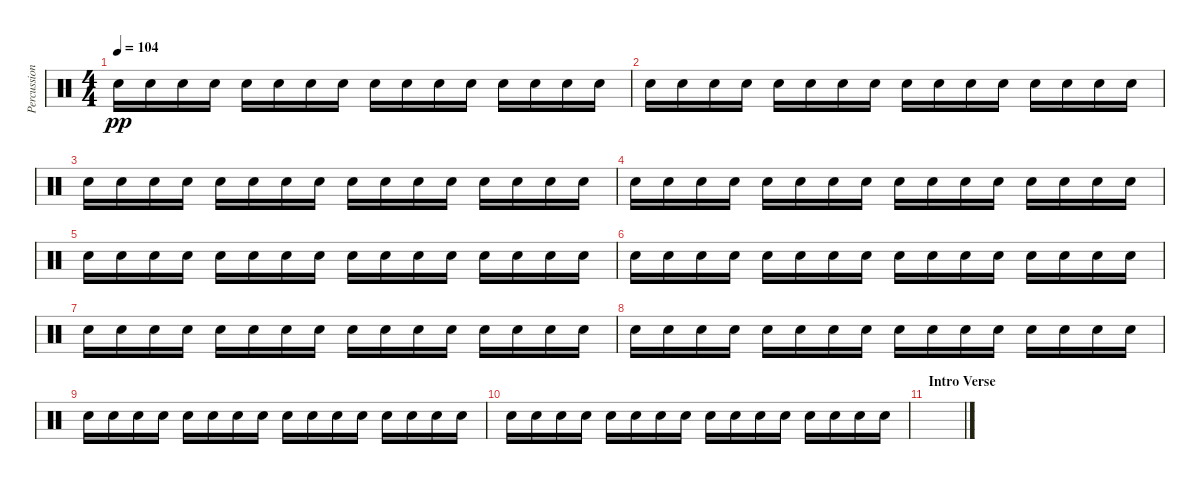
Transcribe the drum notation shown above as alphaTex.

\track ("Percussion" "Percussion") {instrument percussion}
\staff {score}
\articulation defaults
\ts (4 4)
\tempo 104
\clef neutral
\ks c "Snare (hit) 2".16{dy pp} "Snare (hit) 2".16 "Snare (hit) 2".16 "Snare (hit) 2".16 "Snare (hit) 2".16 "Snare (hit) 2".16 "Snare (hit) 2".16 "Snare (hit) 2".16 "Snare (hit) 2".16 "Snare (hit) 2".16 "Snare (hit) 2".16 "Snare (hit) 2".16 "Snare (hit) 2".16 "Snare (hit) 2".16 "Snare (hit) 2".16 "Snare (hit) 2".16
|
"Snare (hit) 2".16 "Snare (hit) 2".16 "Snare (hit) 2".16 "Snare (hit) 2".16 "Snare (hit) 2".16 "Snare (hit) 2".16 "Snare (hit) 2".16 "Snare (hit) 2".16 "Snare (hit) 2".16 "Snare (hit) 2".16 "Snare (hit) 2".16 "Snare (hit) 2".16 "Snare (hit) 2".16 "Snare (hit) 2".16 "Snare (hit) 2".16 "Snare (hit) 2".16 |
"Snare (hit) 2".16 "Snare (hit) 2".16 "Snare (hit) 2".16 "Snare (hit) 2".16 "Snare (hit) 2".16 "Snare (hit) 2".16 "Snare (hit) 2".16 "Snare (hit) 2".16 "Snare (hit) 2".16 "Snare (hit) 2".16 "Snare (hit) 2".16 "Snare (hit) 2".16 "Snare (hit) 2".16 "Snare (hit) 2".16 "Snare (hit) 2".16 "Snare (hit) 2".16 |
"Snare (hit) 2".16 "Snare (hit) 2".16 "Snare (hit) 2".16 "Snare (hit) 2".16 "Snare (hit) 2".16 "Snare (hit) 2".16 "Snare (hit) 2".16 "Snare (hit) 2".16 "Snare (hit) 2".16 "Snare (hit) 2".16 "Snare (hit) 2".16 "Snare (hit) 2".16 "Snare (hit) 2".16 "Snare (hit) 2".16 "Snare (hit) 2".16 "Snare (hit) 2".16 |
"Snare (hit) 2".16 "Snare (hit) 2".16 "Snare (hit) 2".16 "Snare (hit) 2".16 "Snare (hit) 2".16 "Snare (hit) 2".16 "Snare (hit) 2".16 "Snare (hit) 2".16 "Snare (hit) 2".16 "Snare (hit) 2".16 "Snare (hit) 2".16 "Snare (hit) 2".16 "Snare (hit) 2".16 "Snare (hit) 2".16 "Snare (hit) 2".16 "Snare (hit) 2".16 |
"Snare (hit) 2".16 "Snare (hit) 2".16 "Snare (hit) 2".16 "Snare (hit) 2".16 "Snare (hit) 2".16 "Snare (hit) 2".16 "Snare (hit) 2".16 "Snare (hit) 2".16 "Snare (hit) 2".16 "Snare (hit) 2".16 "Snare (hit) 2".16 "Snare (hit) 2".16 "Snare (hit) 2".16 "Snare (hit) 2".16 "Snare (hit) 2".16 "Snare (hit) 2".16 |
"Snare (hit) 2".16 "Snare (hit) 2".16 "Snare (hit) 2".16 "Snare (hit) 2".16 "Snare (hit) 2".16 "Snare (hit) 2".16 "Snare (hit) 2".16 "Snare (hit) 2".16 "Snare (hit) 2".16 "Snare (hit) 2".16 "Snare (hit) 2".16 "Snare (hit) 2".16 "Snare (hit) 2".16 "Snare (hit) 2".16 "Snare (hit) 2".16 "Snare (hit) 2".16 |
"Snare (hit) 2".16 "Snare (hit) 2".16 "Snare (hit) 2".16 "Snare (hit) 2".16 "Snare (hit) 2".16 "Snare (hit) 2".16 "Snare (hit) 2".16 "Snare (hit) 2".16 "Snare (hit) 2".16 "Snare (hit) 2".16 "Snare (hit) 2".16 "Snare (hit) 2".16 "Snare (hit) 2".16 "Snare (hit) 2".16 "Snare (hit) 2".16 "Snare (hit) 2".16 |
"Snare (hit) 2".16 "Snare (hit) 2".16 "Snare (hit) 2".16 "Snare (hit) 2".16 "Snare (hit) 2".16 "Snare (hit) 2".16 "Snare (hit) 2".16 "Snare (hit) 2".16 "Snare (hit) 2".16 "Snare (hit) 2".16 "Snare (hit) 2".16 "Snare (hit) 2".16 "Snare (hit) 2".16 "Snare (hit) 2".16 "Snare (hit) 2".16 "Snare (hit) 2".16 |
"Snare (hit) 2".16 "Snare (hit) 2".16 "Snare (hit) 2".16 "Snare (hit) 2".16 "Snare (hit) 2".16 "Snare (hit) 2".16 "Snare (hit) 2".16 "Snare (hit) 2".16 "Snare (hit) 2".16 "Snare (hit) 2".16 "Snare (hit) 2".16 "Snare (hit) 2".16 "Snare (hit) 2".16 "Snare (hit) 2".16 "Snare (hit) 2".16 "Snare (hit) 2".16 |
\section ("" "Intro Verse")
